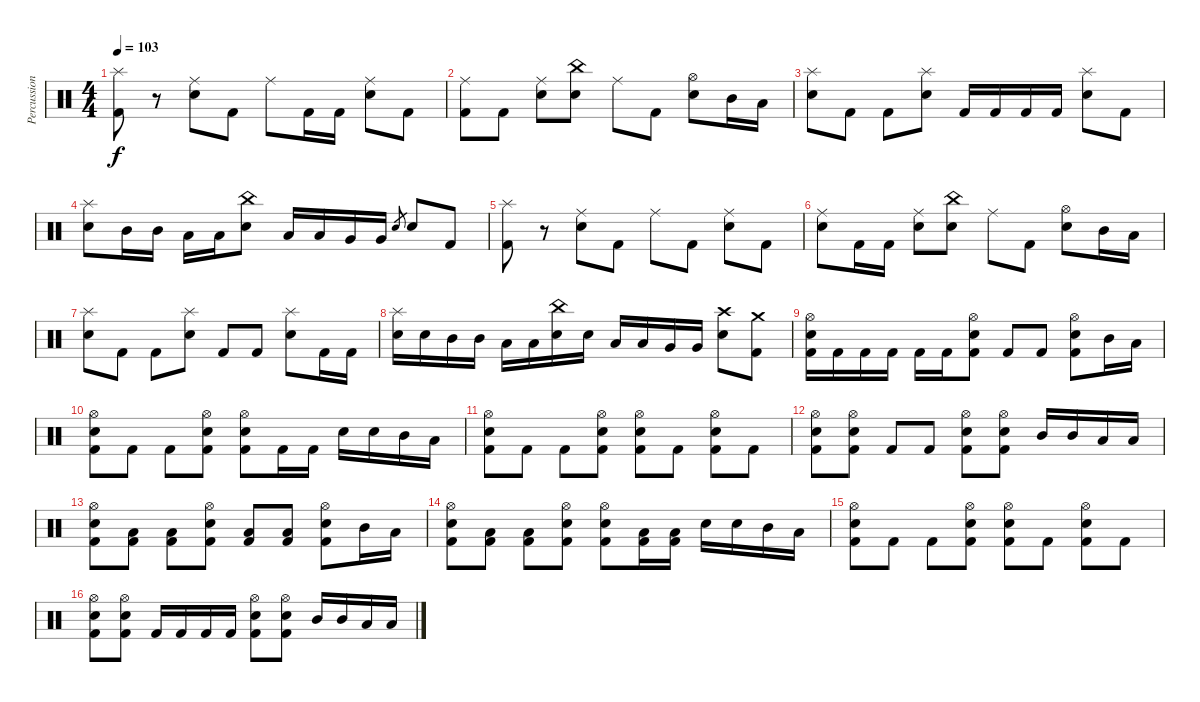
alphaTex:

\track ("Percussion" "Percussion") {instrument percussion}
\staff {score}
\articulation defaults
\ts (4 4)
\tempo 103
\clef neutral
\ks c
("Splash (hit)" "Kick (hit) 2").8{dy f} r.8 ("Ride (middle)" "Electric Snare (hit)").8 "Kick (hit) 2".8 "Ride (middle)".8 "Kick (hit) 2".16 "Kick (hit) 2".16 ("Ride (middle)" "Electric Snare (hit)").8 "Kick (hit) 2".8 |
("Ride (middle)" "Kick (hit) 2").8 "Kick (hit) 2".8 ("Ride (middle)" "Electric Snare (hit)").8 ("China (hit)" "Electric Snare (hit)").8 "Ride (middle)".8 "Kick (hit) 2".8 ("Hi-Hat (open)" "Electric Snare (hit)").8 "Mid Tom (hit)".16 "Low Tom (hit)".16 |
("Splash (hit)" "Electric Snare (hit)").8 "Kick (hit) 2".8 "Kick (hit) 2".8 ("Splash (hit)" "Electric Snare (hit)").8 "Kick (hit) 2".16 "Kick (hit) 2".16 "Kick (hit) 2".16 "Kick (hit) 2".16 ("Splash (hit)" "Electric Snare (hit)").8 "Kick (hit) 2".8 |
("Splash (hit)" "Electric Snare (hit)").8 "Mid Tom (hit)".16 "Mid Tom (hit)".16 "Low Tom (hit)".16 "Low Tom (hit)".16 ("China (hit)" "Electric Snare (hit)").8 "Low Tom (hit)".16 "Low Tom (hit)".16 "Very Low Tom (hit)".16 "Very Low Tom (hit)".16 "Electric Snare (hit)".8{gr} "Electric Snare (hit)".8 "Kick (hit) 2".8 |
("Splash (hit)" "Kick (hit) 2").8 r.8 ("Ride (middle)" "Electric Snare (hit)").8 "Kick (hit) 2".8 "Ride (middle)".8 "Kick (hit) 2".8 ("Ride (middle)" "Electric Snare (hit)").8 "Kick (hit) 2".8 |
("Ride (middle)" "Electric Snare (hit)").8 "Kick (hit) 2".16 "Kick (hit) 2".16 ("Ride (middle)" "Electric Snare (hit)").8 ("China (hit)" "Electric Snare (hit)").8 "Ride (middle)".8 "Kick (hit) 2".8 ("Hi-Hat (open)" "Electric Snare (hit)").8 "Mid Tom (hit)".16 "Low Tom (hit)".16 |
("Splash (hit)" "Electric Snare (hit)").8 "Kick (hit) 2".8 "Kick (hit) 2".8 ("Splash (hit)" "Electric Snare (hit)").8 "Kick (hit) 2".8 "Kick (hit) 2".8 ("Splash (hit)" "Electric Snare (hit)").8 "Kick (hit) 2".16 "Kick (hit) 2".16 |
("Splash (hit)" "Electric Snare (hit)").16 "Electric Snare (hit)".16 "Mid Tom (hit)".16 "Mid Tom (hit)".16 "Low Tom (hit)".16 "Low Tom (hit)".16 ("China (hit)" "Electric Snare (hit)").16 "Electric Snare (hit)".16 "Low Tom (hit)".16 "Low Tom (hit)".16 "Very Low Tom (hit)".16 "Very Low Tom (hit)".16 ("Crash high (hit)" "Electric Snare (hit)").8 ("Crash medium (hit)" "Kick (hit) 2").8 |
("Hi-Hat (open)" "Electric Snare (hit)" "Kick (hit) 2").16 "Kick (hit) 2".16 "Kick (hit) 2".16 "Kick (hit) 2".16 "Kick (hit) 2".16 "Kick (hit) 2".16 ("Hi-Hat (open)" "Electric Snare (hit)" "Kick (hit) 2").8 "Kick (hit) 2".8 "Kick (hit) 2".8 ("Hi-Hat (open)" "Electric Snare (hit)" "Kick (hit) 2").8 "Mid Tom (hit)".16 "Low Tom (hit)".16 |
("Hi-Hat (open)" "Electric Snare (hit)" "Kick (hit) 2").8 "Kick (hit) 2".8 "Kick (hit) 2".8 ("Hi-Hat (open)" "Electric Snare (hit)" "Kick (hit) 2").8 ("Hi-Hat (open)" "Electric Snare (hit)" "Kick (hit) 2").8 "Kick (hit) 2".16 "Kick (hit) 2".16 "Electric Snare (hit)".16 "Electric Snare (hit)".16 "Mid Tom (hit)".16 "Low Tom (hit)".16 |
("Hi-Hat (open)" "Electric Snare (hit)" "Kick (hit) 2").8 "Kick (hit) 2".8 "Kick (hit) 2".8 ("Hi-Hat (open)" "Electric Snare (hit)" "Kick (hit) 2").8 ("Hi-Hat (open)" "Electric Snare (hit)" "Kick (hit) 2").8 "Kick (hit) 2".8 ("Hi-Hat (open)" "Electric Snare (hit)" "Kick (hit) 2").8 "Kick (hit) 2".8 |
("Hi-Hat (open)" "Electric Snare (hit)" "Kick (hit) 2").8 ("Hi-Hat (open)" "Electric Snare (hit)" "Kick (hit) 2").8 "Kick (hit) 2".8 "Kick (hit) 2".8 ("Hi-Hat (open)" "Electric Snare (hit)" "Kick (hit) 2").8 ("Hi-Hat (open)" "Electric Snare (hit)" "Kick (hit) 2").8 "Mid Tom (hit)".16 "Mid Tom (hit)".16 "Low Tom (hit)".16 "Low Tom (hit)".16 |
("Hi-Hat (open)" "Electric Snare (hit)" "Kick (hit) 2").8 ("Low Floor Tom (hit)" "Kick (hit) 2").8 ("Low Floor Tom (hit)" "Kick (hit) 2").8 ("Hi-Hat (open)" "Electric Snare (hit)" "Kick (hit) 2").8 ("Low Floor Tom (hit)" "Kick (hit) 2").8 ("Low Floor Tom (hit)" "Kick (hit) 2").8 ("Hi-Hat (open)" "Electric Snare (hit)" "Kick (hit) 2").8 "Mid Tom (hit)".16 "Low Tom (hit)".16 |
("Hi-Hat (open)" "Electric Snare (hit)" "Kick (hit) 2").8 ("Low Floor Tom (hit)" "Kick (hit) 2").8 ("Low Floor Tom (hit)" "Kick (hit) 2").8 ("Hi-Hat (open)" "Electric Snare (hit)" "Kick (hit) 2").8 ("Hi-Hat (open)" "Electric Snare (hit)" "Kick (hit) 2").8 ("Low Floor Tom (hit)" "Kick (hit) 2").16 ("Low Floor Tom (hit)" "Kick (hit) 2").16 "Electric Snare (hit)".16 "Electric Snare (hit)".16 "Mid Tom (hit)".16 "Low Tom (hit)".16 |
("Hi-Hat (open)" "Electric Snare (hit)" "Kick (hit) 2").8 "Kick (hit) 2".8 "Kick (hit) 2".8 ("Hi-Hat (open)" "Electric Snare (hit)" "Kick (hit) 2").8 ("Hi-Hat (open)" "Electric Snare (hit)" "Kick (hit) 2").8 "Kick (hit) 2".8 ("Hi-Hat (open)" "Electric Snare (hit)" "Kick (hit) 2").8 "Kick (hit) 2".8 |
("Hi-Hat (open)" "Electric Snare (hit)" "Kick (hit) 2").8 ("Hi-Hat (open)" "Electric Snare (hit)" "Kick (hit) 2").8 "Kick (hit) 2".16 "Kick (hit) 2".16 "Kick (hit) 2".16 "Kick (hit) 2".16 ("Hi-Hat (open)" "Electric Snare (hit)" "Kick (hit) 2").8 ("Hi-Hat (open)" "Electric Snare (hit)" "Kick (hit) 2").8 "Mid Tom (hit)".16 "Mid Tom (hit)".16 "Low Tom (hit)".16 "Low Tom (hit)".16
